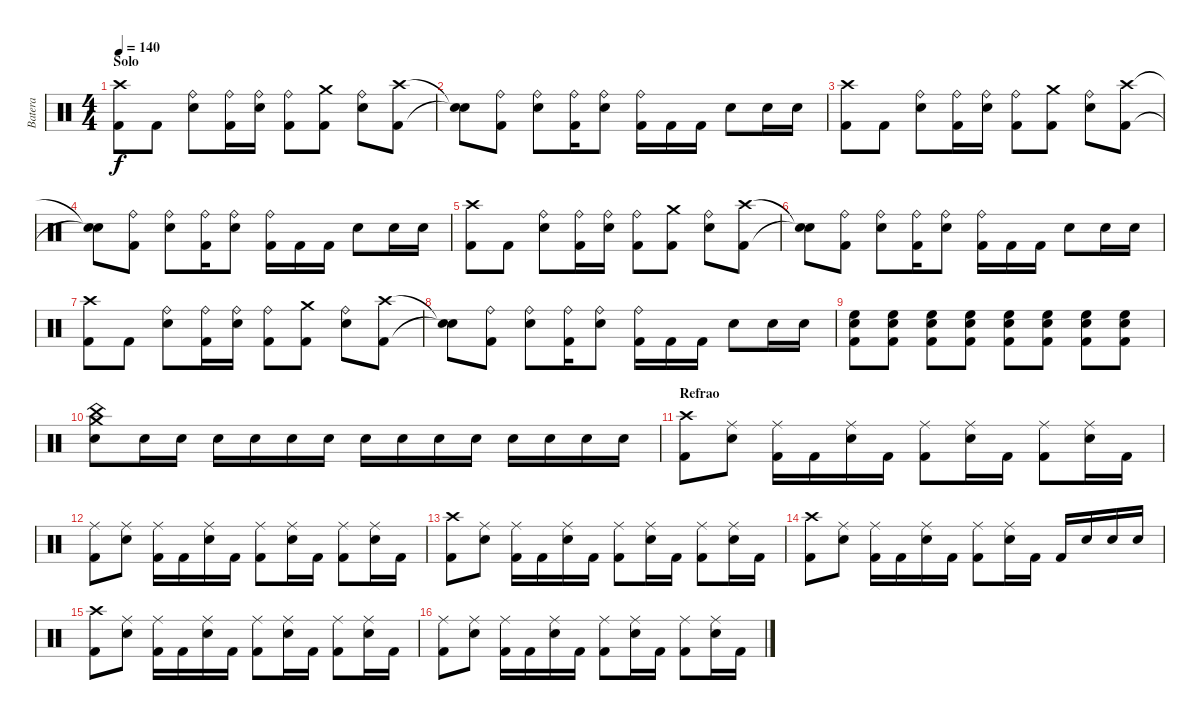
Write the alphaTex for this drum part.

\track ("Batera" "Batera") {instrument percussion}
\staff {score}
\articulation defaults
\ts (4 4)
\section ("" "Solo")
\tempo 140
\clef neutral
\ks c
("Crash high (hit)" "Kick (hit) 2").8{dy f} "Kick (hit) 2".8 ("Ride (bell)" "Electric Snare (hit)").8 ("Ride (bell)" "Kick (hit) 2").16 ("Ride (bell)" "Electric Snare (hit)").16 ("Ride (bell)" "Kick (hit) 2").8 ("Crash medium (hit)" "Kick (hit) 2").8 ("Ride (bell)" "Electric Snare (hit)").8 ("Crash high (hit)" "Kick (hit) 2").8 |
("Snare (hit)"{t} "Snare (hit)"{t}).8 ("Ride (bell)" "Kick (hit) 2").8 ("Ride (bell)" "Electric Snare (hit)").8 ("Ride (bell)" "Kick (hit) 2").16 ("Ride (bell)" "Electric Snare (hit)").8 ("Ride (bell)" "Kick (hit) 2").16 "Kick (hit) 2".16 "Kick (hit) 2".16 "Electric Snare (hit)".8 "Electric Snare (hit)".16 "Electric Snare (hit)".16 |
("Crash high (hit)" "Kick (hit) 2").8 "Kick (hit) 2".8 ("Ride (bell)" "Electric Snare (hit)").8 ("Ride (bell)" "Kick (hit) 2").16 ("Ride (bell)" "Electric Snare (hit)").16 ("Ride (bell)" "Kick (hit) 2").8 ("Crash medium (hit)" "Kick (hit) 2").8 ("Ride (bell)" "Electric Snare (hit)").8 ("Crash high (hit)" "Kick (hit) 2").8 |
("Snare (hit)"{t} "Snare (hit)"{t}).8 ("Ride (bell)" "Kick (hit) 2").8 ("Ride (bell)" "Electric Snare (hit)").8 ("Ride (bell)" "Kick (hit) 2").16 ("Ride (bell)" "Electric Snare (hit)").8 ("Ride (bell)" "Kick (hit) 2").16 "Kick (hit) 2".16 "Kick (hit) 2".16 "Electric Snare (hit)".8 "Electric Snare (hit)".16 "Electric Snare (hit)".16 |
("Crash high (hit)" "Kick (hit) 2").8 "Kick (hit) 2".8 ("Ride (bell)" "Electric Snare (hit)").8 ("Ride (bell)" "Kick (hit) 2").16 ("Ride (bell)" "Electric Snare (hit)").16 ("Ride (bell)" "Kick (hit) 2").8 ("Crash medium (hit)" "Kick (hit) 2").8 ("Ride (bell)" "Electric Snare (hit)").8 ("Crash high (hit)" "Kick (hit) 2").8 |
("Snare (hit)"{t} "Snare (hit)"{t}).8 ("Ride (bell)" "Kick (hit) 2").8 ("Ride (bell)" "Electric Snare (hit)").8 ("Ride (bell)" "Kick (hit) 2").16 ("Ride (bell)" "Electric Snare (hit)").8 ("Ride (bell)" "Kick (hit) 2").16 "Kick (hit) 2".16 "Kick (hit) 2".16 "Electric Snare (hit)".8 "Electric Snare (hit)".16 "Electric Snare (hit)".16 |
("Crash high (hit)" "Kick (hit) 2").8 "Kick (hit) 2".8 ("Ride (bell)" "Electric Snare (hit)").8 ("Ride (bell)" "Kick (hit) 2").16 ("Ride (bell)" "Electric Snare (hit)").16 ("Ride (bell)" "Kick (hit) 2").8 ("Crash medium (hit)" "Kick (hit) 2").8 ("Ride (bell)" "Electric Snare (hit)").8 ("Crash high (hit)" "Kick (hit) 2").8 |
("Snare (hit)"{t} "Snare (hit)"{t}).8 ("Ride (bell)" "Kick (hit) 2").8 ("Ride (bell)" "Electric Snare (hit)").8 ("Ride (bell)" "Kick (hit) 2").16 ("Ride (bell)" "Electric Snare (hit)").8 ("Ride (bell)" "Kick (hit) 2").16 "Kick (hit) 2".16 "Kick (hit) 2".16 "Electric Snare (hit)".8 "Electric Snare (hit)".16 "Electric Snare (hit)".16 |
("High Floor Tom (hit)" "Electric Snare (hit)" "Kick (hit) 2").8 ("High Floor Tom (hit)" "Electric Snare (hit)" "Kick (hit) 2").8 ("High Floor Tom (hit)" "Electric Snare (hit)" "Kick (hit) 2").8 ("High Floor Tom (hit)" "Electric Snare (hit)" "Kick (hit) 2").8 ("High Floor Tom (hit)" "Electric Snare (hit)" "Kick (hit) 2").8 ("High Floor Tom (hit)" "Electric Snare (hit)" "Kick (hit) 2").8 ("High Floor Tom (hit)" "Electric Snare (hit)" "Kick (hit) 2").8 ("High Floor Tom (hit)" "Electric Snare (hit)" "Kick (hit) 2").8 |
("Crash medium (hit)" "China (hit)" "Electric Snare (hit)").8 "Electric Snare (hit)".16 "Electric Snare (hit)".16 "Electric Snare (hit)".16 "Electric Snare (hit)".16 "Electric Snare (hit)".16 "Electric Snare (hit)".16 "Electric Snare (hit)".16 "Electric Snare (hit)".16 "Electric Snare (hit)".16 "Electric Snare (hit)".16 "Electric Snare (hit)".16 "Electric Snare (hit)".16 "Electric Snare (hit)".16 "Electric Snare (hit)".16 |
\section ("" "Refrao")
("Crash high (hit)" "Kick (hit) 2").8 ("Ride (middle)" "Electric Snare (hit)").8 ("Ride (middle)" "Kick (hit) 2").16 "Kick (hit) 2".16 ("Ride (middle)" "Electric Snare (hit)").16 "Kick (hit) 2".16 ("Ride (middle)" "Kick (hit) 2").8 ("Ride (middle)" "Electric Snare (hit)").16 "Kick (hit) 2".16 ("Ride (middle)" "Kick (hit) 2").8 ("Ride (middle)" "Electric Snare (hit)").16 "Kick (hit) 2".16 |
("Ride (middle)" "Kick (hit) 2").8 ("Ride (middle)" "Electric Snare (hit)").8 ("Ride (middle)" "Kick (hit) 2").16 "Kick (hit) 2".16 ("Ride (middle)" "Electric Snare (hit)").16 "Kick (hit) 2".16 ("Ride (middle)" "Kick (hit) 2").8 ("Ride (middle)" "Electric Snare (hit)").16 "Kick (hit) 2".16 ("Ride (middle)" "Kick (hit) 2").8 ("Ride (middle)" "Electric Snare (hit)").16 "Kick (hit) 2".16 |
("Crash high (hit)" "Kick (hit) 2").8 ("Ride (middle)" "Electric Snare (hit)").8 ("Ride (middle)" "Kick (hit) 2").16 "Kick (hit) 2".16 ("Ride (middle)" "Electric Snare (hit)").16 "Kick (hit) 2".16 ("Ride (middle)" "Kick (hit) 2").8 ("Ride (middle)" "Electric Snare (hit)").16 "Kick (hit) 2".16 ("Ride (middle)" "Kick (hit) 2").8 ("Ride (middle)" "Electric Snare (hit)").16 "Kick (hit) 2".16 |
("Crash high (hit)" "Kick (hit) 2").8 ("Ride (middle)" "Electric Snare (hit)").8 ("Ride (middle)" "Kick (hit) 2").16 "Kick (hit) 2".16 ("Ride (middle)" "Electric Snare (hit)").16 "Kick (hit) 2".16 ("Ride (middle)" "Kick (hit) 2").8 ("Ride (middle)" "Electric Snare (hit)").16 "Kick (hit) 2".16 "Kick (hit) 2".16 "Electric Snare (hit)".16 "Electric Snare (hit)".16 "Electric Snare (hit)".16 |
("Crash high (hit)" "Kick (hit) 2").8 ("Ride (middle)" "Electric Snare (hit)").8 ("Ride (middle)" "Kick (hit) 2").16 "Kick (hit) 2".16 ("Ride (middle)" "Electric Snare (hit)").16 "Kick (hit) 2".16 ("Ride (middle)" "Kick (hit) 2").8 ("Ride (middle)" "Electric Snare (hit)").16 "Kick (hit) 2".16 ("Ride (middle)" "Kick (hit) 2").8 ("Ride (middle)" "Electric Snare (hit)").16 "Kick (hit) 2".16 |
("Ride (middle)" "Kick (hit) 2").8 ("Ride (middle)" "Electric Snare (hit)").8 ("Ride (middle)" "Kick (hit) 2").16 "Kick (hit) 2".16 ("Ride (middle)" "Electric Snare (hit)").16 "Kick (hit) 2".16 ("Ride (middle)" "Kick (hit) 2").8 ("Ride (middle)" "Electric Snare (hit)").16 "Kick (hit) 2".16 ("Ride (middle)" "Kick (hit) 2").8 ("Ride (middle)" "Electric Snare (hit)").16 "Kick (hit) 2".16
